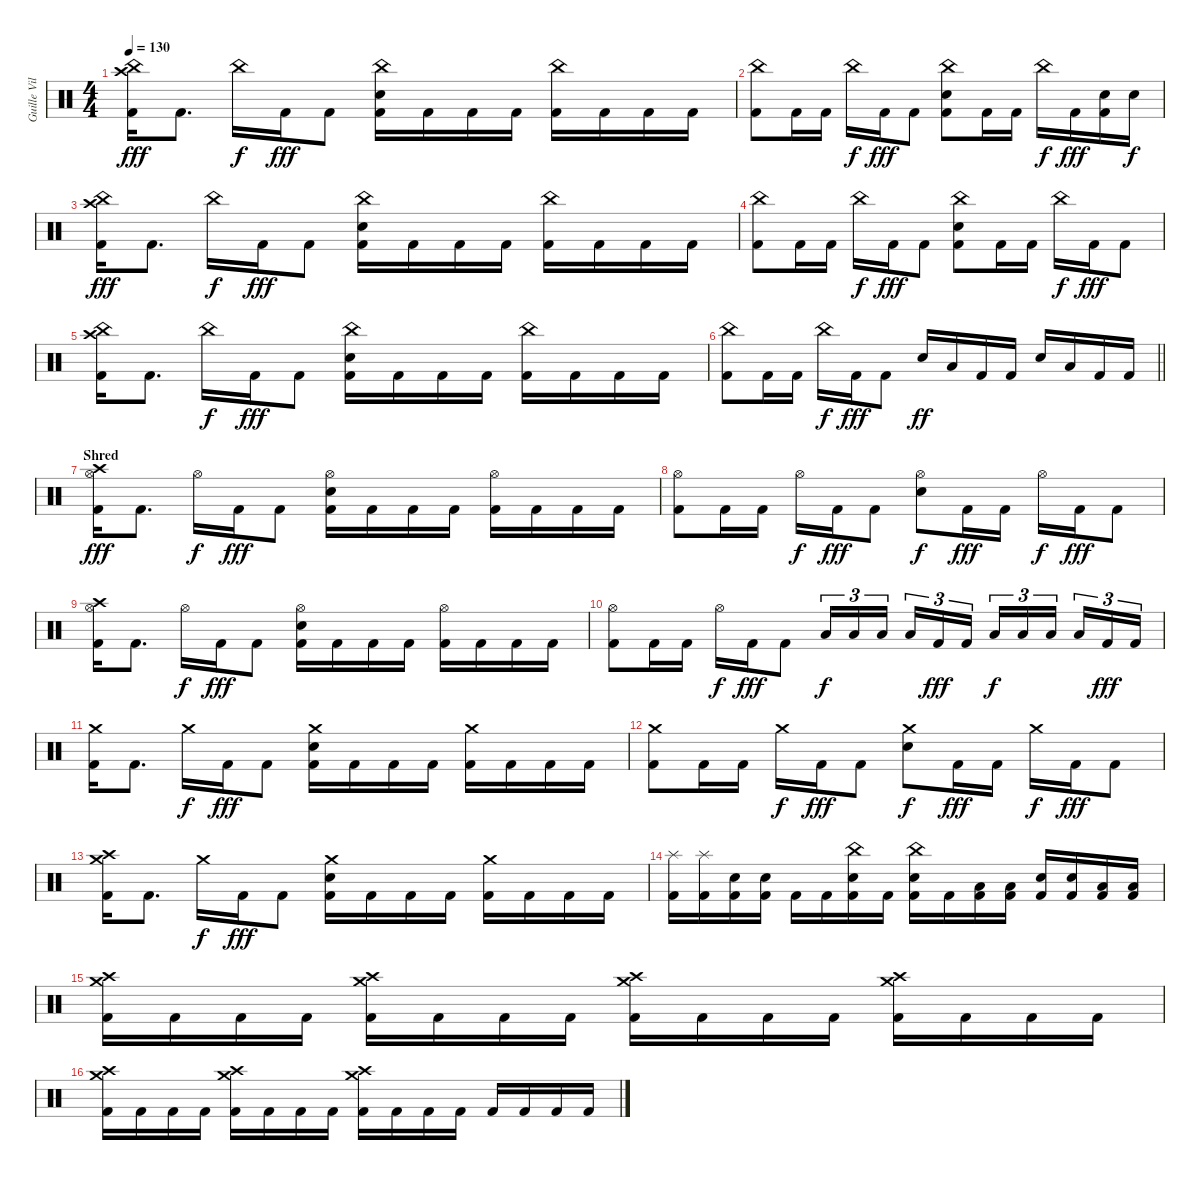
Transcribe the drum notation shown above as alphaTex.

\track ("Guille Vila" "Guille Vil") {instrument percussion}
\staff {score}
\articulation defaults
\ts (4 4)
\tempo 130
\clef neutral
\ks c
("Crash high (hit)" "China (hit)" "Kick (hit) 2").16{dy fff} "Kick (hit) 2".8{d} "China (hit)".16{dy f} "Kick (hit) 2".16{dy fff} "Kick (hit) 2".8 ("China (hit)" "Snare (hit) 2" "Kick (hit) 2").16 "Kick (hit) 2".16 "Kick (hit) 2".16 "Kick (hit) 2".16 ("China (hit)" "Kick (hit) 2").16 "Kick (hit) 2".16 "Kick (hit) 2".16 "Kick (hit) 2".16 |
("China (hit)" "Kick (hit) 2").8 "Kick (hit) 2".16 "Kick (hit) 2".16 "China (hit)".16{dy f} "Kick (hit) 2".16{dy fff} "Kick (hit) 2".8 ("China (hit)" "Snare (hit) 2" "Kick (hit) 2").8 "Kick (hit) 2".16 "Kick (hit) 2".16 "China (hit)".16{dy f} "Kick (hit) 2".16{dy fff} ("Snare (hit) 2" "Kick (hit) 2").16 "Snare (hit) 2".16{dy f} |
("Crash high (hit)" "China (hit)" "Kick (hit) 2").16{dy fff} "Kick (hit) 2".8{d} "China (hit)".16{dy f} "Kick (hit) 2".16{dy fff} "Kick (hit) 2".8 ("China (hit)" "Snare (hit) 2" "Kick (hit) 2").16 "Kick (hit) 2".16 "Kick (hit) 2".16 "Kick (hit) 2".16 ("China (hit)" "Kick (hit) 2").16 "Kick (hit) 2".16 "Kick (hit) 2".16 "Kick (hit) 2".16 |
("China (hit)" "Kick (hit) 2").8 "Kick (hit) 2".16 "Kick (hit) 2".16 "China (hit)".16{dy f} "Kick (hit) 2".16{dy fff} "Kick (hit) 2".8 ("China (hit)" "Snare (hit) 2" "Kick (hit) 2").8 "Kick (hit) 2".16 "Kick (hit) 2".16 "China (hit)".16{dy f} "Kick (hit) 2".16{dy fff} "Kick (hit) 2".8 |
("Crash high (hit)" "China (hit)" "Kick (hit) 2").16 "Kick (hit) 2".8{d} "China (hit)".16{dy f} "Kick (hit) 2".16{dy fff} "Kick (hit) 2".8 ("China (hit)" "Snare (hit) 2" "Kick (hit) 2").16 "Kick (hit) 2".16 "Kick (hit) 2".16 "Kick (hit) 2".16 ("China (hit)" "Kick (hit) 2").16 "Kick (hit) 2".16 "Kick (hit) 2".16 "Kick (hit) 2".16 |
\barLineRight lightlight
("China (hit)" "Kick (hit) 2").8 "Kick (hit) 2".16 "Kick (hit) 2".16 "China (hit)".16{dy f} "Kick (hit) 2".16{dy fff} "Kick (hit) 2".8 "Snare (hit) 2".16{dy ff} "Low Tom (hit)".16 "Kick (hit) 2".16 "Kick (hit) 2".16 "Snare (hit) 2".16 "Low Tom (hit)".16 "Kick (hit) 2".16 "Kick (hit) 2".16 |
\section ("" "Shred")
("Crash high (hit)" "Hi-Hat (open)" "Kick (hit) 2").16{dy fff} "Kick (hit) 2".8{d} "Hi-Hat (open)".16{dy f} "Kick (hit) 2".16{dy fff} "Kick (hit) 2".8 ("Hi-Hat (open)" "Snare (hit) 2" "Kick (hit) 2").16 "Kick (hit) 2".16 "Kick (hit) 2".16 "Kick (hit) 2".16 ("Hi-Hat (open)" "Kick (hit) 2").16 "Kick (hit) 2".16 "Kick (hit) 2".16 "Kick (hit) 2".16 |
("Hi-Hat (open)" "Kick (hit) 2").8 "Kick (hit) 2".16 "Kick (hit) 2".16 "Hi-Hat (open)".16{dy f} "Kick (hit) 2".16{dy fff} "Kick (hit) 2".8 ("Hi-Hat (open)" "Snare (hit) 2").8{dy f} "Kick (hit) 2".16{dy fff} "Kick (hit) 2".16 "Hi-Hat (open)".16{dy f} "Kick (hit) 2".16{dy fff} "Kick (hit) 2".8 |
("Crash high (hit)" "Hi-Hat (open)" "Kick (hit) 2").16 "Kick (hit) 2".8{d} "Hi-Hat (open)".16{dy f} "Kick (hit) 2".16{dy fff} "Kick (hit) 2".8 ("Hi-Hat (open)" "Snare (hit) 2" "Kick (hit) 2").16 "Kick (hit) 2".16 "Kick (hit) 2".16 "Kick (hit) 2".16 ("Hi-Hat (open)" "Kick (hit) 2").16 "Kick (hit) 2".16 "Kick (hit) 2".16 "Kick (hit) 2".16 |
("Hi-Hat (open)" "Kick (hit) 2").8 "Kick (hit) 2".16 "Kick (hit) 2".16 "Hi-Hat (open)".16{dy f} "Kick (hit) 2".16{dy fff} "Kick (hit) 2".8 "Low Tom (hit)".16{tu (3 2) dy f} "Low Tom (hit)".16{tu (3 2)} "Low Tom (hit)".16{tu (3 2) beam splitsecondary} "Low Tom (hit)".16{tu (3 2)} "Kick (hit) 2".16{tu (3 2) dy fff} "Kick (hit) 2".16{tu (3 2)} "Low Floor Tom (hit)".16{tu (3 2) dy f} "Low Floor Tom (hit)".16{tu (3 2)} "Low Floor Tom (hit)".16{tu (3 2) beam splitsecondary} "Low Floor Tom (hit)".16{tu (3 2)} "Kick (hit) 2".16{tu (3 2) dy fff} "Kick (hit) 2".16{tu (3 2)} |
("Crash medium (hit)" "Kick (hit) 2").16 "Kick (hit) 2".8{d} "Crash medium (hit)".16{dy f} "Kick (hit) 2".16{dy fff} "Kick (hit) 2".8 ("Crash medium (hit)" "Snare (hit) 2" "Kick (hit) 2").16 "Kick (hit) 2".16 "Kick (hit) 2".16 "Kick (hit) 2".16 ("Crash medium (hit)" "Kick (hit) 2").16 "Kick (hit) 2".16 "Kick (hit) 2".16 "Kick (hit) 2".16 |
("Crash medium (hit)" "Kick (hit) 2").8 "Kick (hit) 2".16 "Kick (hit) 2".16 "Crash medium (hit)".16{dy f} "Kick (hit) 2".16{dy fff} "Kick (hit) 2".8 ("Crash medium (hit)" "Snare (hit) 2").8{dy f} "Kick (hit) 2".16{dy fff} "Kick (hit) 2".16 "Crash medium (hit)".16{dy f} "Kick (hit) 2".16{dy fff} "Kick (hit) 2".8 |
("Crash high (hit)" "Crash medium (hit)" "Kick (hit) 2").16 "Kick (hit) 2".8{d} "Crash medium (hit)".16{dy f} "Kick (hit) 2".16{dy fff} "Kick (hit) 2".8 ("Crash medium (hit)" "Snare (hit) 2" "Kick (hit) 2").16 "Kick (hit) 2".16 "Kick (hit) 2".16 "Kick (hit) 2".16 ("Crash medium (hit)" "Kick (hit) 2").16 "Kick (hit) 2".16 "Kick (hit) 2".16 "Kick (hit) 2".16 |
("Splash (hit)" "Kick (hit) 2").16 ("Splash (hit)" "Kick (hit) 2").16 ("Snare (hit) 2" "Kick (hit) 2").16 ("Snare (hit) 2" "Kick (hit) 2").16 "Kick (hit) 2".16 "Kick (hit) 2".16 ("China (hit)" "Snare (hit) 2" "Kick (hit) 2").16 "Kick (hit) 2".16 ("China (hit)" "Snare (hit) 2" "Kick (hit) 2").16 "Kick (hit) 2".16 ("Low Tom (hit)" "Kick (hit) 2").16 ("Low Tom (hit)" "Kick (hit) 2").16 ("Snare (hit) 2" "Kick (hit) 2").16 ("Snare (hit) 2" "Kick (hit) 2").16 ("Low Tom (hit)" "Kick (hit) 2").16 ("Low Tom (hit)" "Kick (hit) 2").16 |
("Crash high (hit)" "Crash medium (hit)" "Kick (hit) 2").16 "Kick (hit) 2".16 "Kick (hit) 2".16 "Kick (hit) 2".16 ("Crash high (hit)" "Crash medium (hit)" "Kick (hit) 2").16 "Kick (hit) 2".16 "Kick (hit) 2".16 "Kick (hit) 2".16 ("Crash high (hit)" "Crash medium (hit)" "Kick (hit) 2").16 "Kick (hit) 2".16 "Kick (hit) 2".16 "Kick (hit) 2".16 ("Crash high (hit)" "Crash medium (hit)" "Kick (hit) 2").16 "Kick (hit) 2".16 "Kick (hit) 2".16 "Kick (hit) 2".16 |
("Crash high (hit)" "Crash medium (hit)" "Kick (hit) 2").16 "Kick (hit) 2".16 "Kick (hit) 2".16 "Kick (hit) 2".16 ("Crash high (hit)" "Crash medium (hit)" "Kick (hit) 2").16 "Kick (hit) 2".16 "Kick (hit) 2".16 "Kick (hit) 2".16 ("Crash high (hit)" "Crash medium (hit)" "Kick (hit) 2").16 "Kick (hit) 2".16 "Kick (hit) 2".16 "Kick (hit) 2".16 "Kick (hit) 2".16 "Kick (hit) 2".16 "Kick (hit) 2".16 "Kick (hit) 2".16
